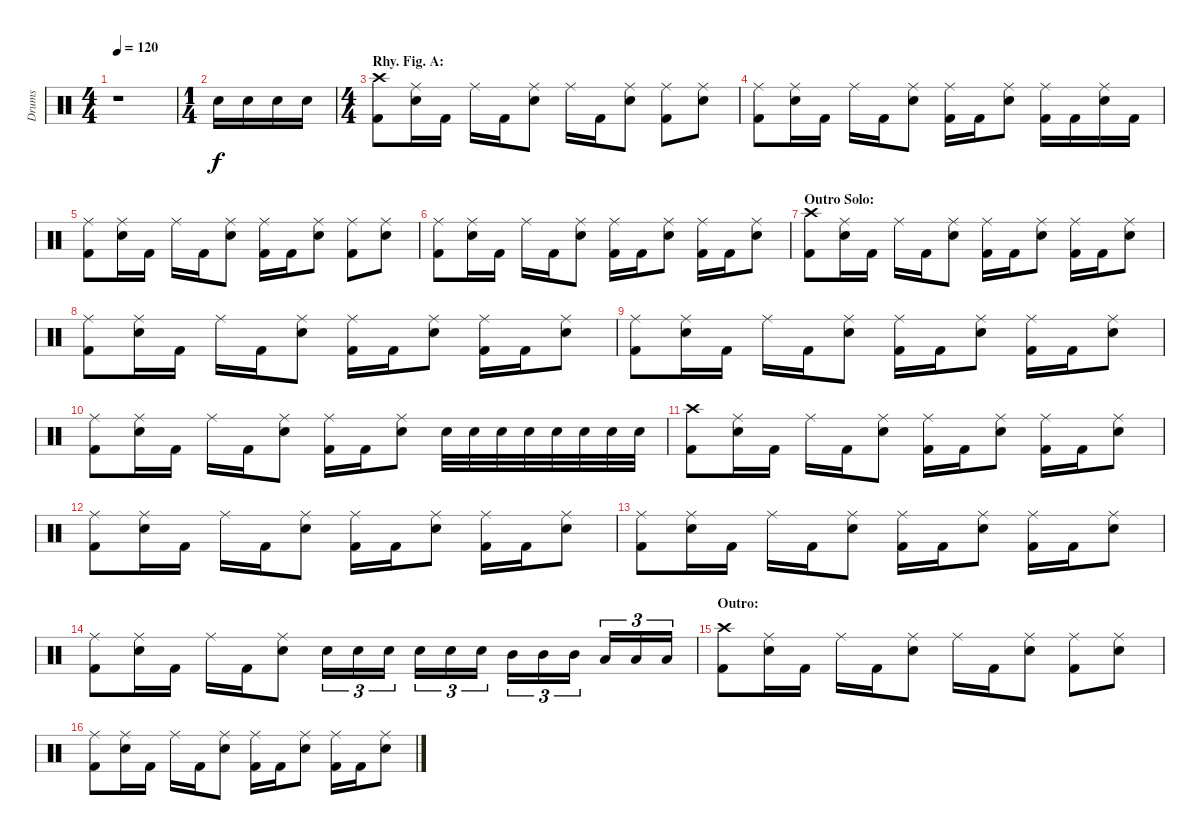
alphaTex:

\track ("Drums" "Drums") {instrument percussion}
\staff {score}
\articulation defaults
\ts (4 4)
\tempo 120
\clef neutral
\ks c
r.1{dy f} |
\ts (1 4)
"Electric Snare (hit)".16 "Electric Snare (hit)".16 "Electric Snare (hit)".16 "Electric Snare (hit)".16 |
\ts (4 4)
\section ("" "Rhy. Fig. A:")
("Crash high (hit)" "Kick (hit) 2").8 ("Ride (middle)" "Electric Snare (hit)").16 "Kick (hit) 2".16 "Ride (middle)".16 "Kick (hit) 2".16 ("Ride (middle)" "Electric Snare (hit)").8 "Ride (middle)".16 "Kick (hit) 2".16 ("Ride (middle)" "Electric Snare (hit)").8 ("Ride (middle)" "Kick (hit) 2").8 ("Ride (middle)" "Electric Snare (hit)").8 |
("Ride (middle)" "Kick (hit) 2").8 ("Ride (middle)" "Electric Snare (hit)").16 "Kick (hit) 2".16 "Ride (middle)".16 "Kick (hit) 2".16 ("Ride (middle)" "Electric Snare (hit)").8 ("Ride (middle)" "Kick (hit) 2").16 "Kick (hit) 2".16 ("Ride (middle)" "Electric Snare (hit)").8 ("Ride (middle)" "Kick (hit) 2").16 "Kick (hit) 2".16 ("Ride (middle)" "Electric Snare (hit)").16 "Kick (hit) 2".16 |
("Ride (middle)" "Kick (hit) 2").8 ("Ride (middle)" "Electric Snare (hit)").16 "Kick (hit) 2".16 "Ride (middle)".16 "Kick (hit) 2".16 ("Ride (middle)" "Electric Snare (hit)").8 ("Ride (middle)" "Kick (hit) 2").16 "Kick (hit) 2".16 ("Ride (middle)" "Electric Snare (hit)").8 ("Ride (middle)" "Kick (hit) 2").8 ("Ride (middle)" "Electric Snare (hit)").8 |
("Ride (middle)" "Kick (hit) 2").8 ("Ride (middle)" "Electric Snare (hit)").16 "Kick (hit) 2".16 "Ride (middle)".16 "Kick (hit) 2".16 ("Ride (middle)" "Electric Snare (hit)").8 ("Ride (middle)" "Kick (hit) 2").16 "Kick (hit) 2".16 ("Ride (middle)" "Electric Snare (hit)").8 ("Ride (middle)" "Kick (hit) 2").16 "Kick (hit) 2".16 ("Ride (middle)" "Electric Snare (hit)").8 |
\section ("" "Outro Solo:")
("Crash high (hit)" "Kick (hit) 2").8 ("Ride (middle)" "Electric Snare (hit)").16 "Kick (hit) 2".16 "Ride (middle)".16 "Kick (hit) 2".16 ("Ride (middle)" "Electric Snare (hit)").8 ("Ride (middle)" "Kick (hit) 2").16 "Kick (hit) 2".16 ("Ride (middle)" "Electric Snare (hit)").8 ("Ride (middle)" "Kick (hit) 2").16 "Kick (hit) 2".16 ("Ride (middle)" "Electric Snare (hit)").8 |
("Ride (middle)" "Kick (hit) 2").8 ("Ride (middle)" "Electric Snare (hit)").16 "Kick (hit) 2".16 "Ride (middle)".16 "Kick (hit) 2".16 ("Ride (middle)" "Electric Snare (hit)").8 ("Ride (middle)" "Kick (hit) 2").16 "Kick (hit) 2".16 ("Ride (middle)" "Electric Snare (hit)").8 ("Ride (middle)" "Kick (hit) 2").16 "Kick (hit) 2".16 ("Ride (middle)" "Electric Snare (hit)").8 |
("Ride (middle)" "Kick (hit) 2").8 ("Ride (middle)" "Electric Snare (hit)").16 "Kick (hit) 2".16 "Ride (middle)".16 "Kick (hit) 2".16 ("Ride (middle)" "Electric Snare (hit)").8 ("Ride (middle)" "Kick (hit) 2").16 "Kick (hit) 2".16 ("Ride (middle)" "Electric Snare (hit)").8 ("Ride (middle)" "Kick (hit) 2").16 "Kick (hit) 2".16 ("Ride (middle)" "Electric Snare (hit)").8 |
("Ride (middle)" "Kick (hit) 2").8 ("Ride (middle)" "Electric Snare (hit)").16 "Kick (hit) 2".16 "Ride (middle)".16 "Kick (hit) 2".16 ("Ride (middle)" "Electric Snare (hit)").8 ("Ride (middle)" "Kick (hit) 2").16 "Kick (hit) 2".16 ("Ride (middle)" "Electric Snare (hit)").8 "Electric Snare (hit)".32 "Electric Snare (hit)".32 "Electric Snare (hit)".32 "Electric Snare (hit)".32 "Electric Snare (hit)".32 "Electric Snare (hit)".32 "Electric Snare (hit)".32 "Electric Snare (hit)".32 |
("Crash high (hit)" "Kick (hit) 2").8 ("Ride (middle)" "Electric Snare (hit)").16 "Kick (hit) 2".16 "Ride (middle)".16 "Kick (hit) 2".16 ("Ride (middle)" "Electric Snare (hit)").8 ("Ride (middle)" "Kick (hit) 2").16 "Kick (hit) 2".16 ("Ride (middle)" "Electric Snare (hit)").8 ("Ride (middle)" "Kick (hit) 2").16 "Kick (hit) 2".16 ("Ride (middle)" "Electric Snare (hit)").8 |
("Ride (middle)" "Kick (hit) 2").8 ("Ride (middle)" "Electric Snare (hit)").16 "Kick (hit) 2".16 "Ride (middle)".16 "Kick (hit) 2".16 ("Ride (middle)" "Electric Snare (hit)").8 ("Ride (middle)" "Kick (hit) 2").16 "Kick (hit) 2".16 ("Ride (middle)" "Electric Snare (hit)").8 ("Ride (middle)" "Kick (hit) 2").16 "Kick (hit) 2".16 ("Ride (middle)" "Electric Snare (hit)").8 |
("Ride (middle)" "Kick (hit) 2").8 ("Ride (middle)" "Electric Snare (hit)").16 "Kick (hit) 2".16 "Ride (middle)".16 "Kick (hit) 2".16 ("Ride (middle)" "Electric Snare (hit)").8 ("Ride (middle)" "Kick (hit) 2").16 "Kick (hit) 2".16 ("Ride (middle)" "Electric Snare (hit)").8 ("Ride (middle)" "Kick (hit) 2").16 "Kick (hit) 2".16 ("Ride (middle)" "Electric Snare (hit)").8 |
("Ride (middle)" "Kick (hit) 2").8 ("Ride (middle)" "Electric Snare (hit)").16 "Kick (hit) 2".16 "Ride (middle)".16 "Kick (hit) 2".16 ("Ride (middle)" "Electric Snare (hit)").8 "Electric Snare (hit)".16{tu (3 2)} "Electric Snare (hit)".16{tu (3 2)} "Electric Snare (hit)".16{tu (3 2)} "Electric Snare (hit)".16{tu (3 2)} "Electric Snare (hit)".16{tu (3 2)} "Electric Snare (hit)".16{tu (3 2)} "Mid Tom (hit)".16{tu (3 2)} "Mid Tom (hit)".16{tu (3 2)} "Mid Tom (hit)".16{tu (3 2)} "Low Tom (hit)".16{tu (3 2)} "Low Tom (hit)".16{tu (3 2)} "Low Tom (hit)".16{tu (3 2)} |
\section ("" "Outro:")
("Crash high (hit)" "Kick (hit) 2").8 ("Ride (middle)" "Electric Snare (hit)").16 "Kick (hit) 2".16 "Ride (middle)".16 "Kick (hit) 2".16 ("Ride (middle)" "Electric Snare (hit)").8 "Ride (middle)".16 "Kick (hit) 2".16 ("Ride (middle)" "Electric Snare (hit)").8 ("Ride (middle)" "Kick (hit) 2").8 ("Ride (middle)" "Electric Snare (hit)").8 |
("Ride (middle)" "Kick (hit) 2").8 ("Ride (middle)" "Electric Snare (hit)").16 "Kick (hit) 2".16 "Ride (middle)".16 "Kick (hit) 2".16 ("Ride (middle)" "Electric Snare (hit)").8 ("Ride (middle)" "Kick (hit) 2").16 "Kick (hit) 2".16 ("Ride (middle)" "Electric Snare (hit)").8 ("Ride (middle)" "Kick (hit) 2").16 "Kick (hit) 2".16 ("Ride (middle)" "Electric Snare (hit)").8
